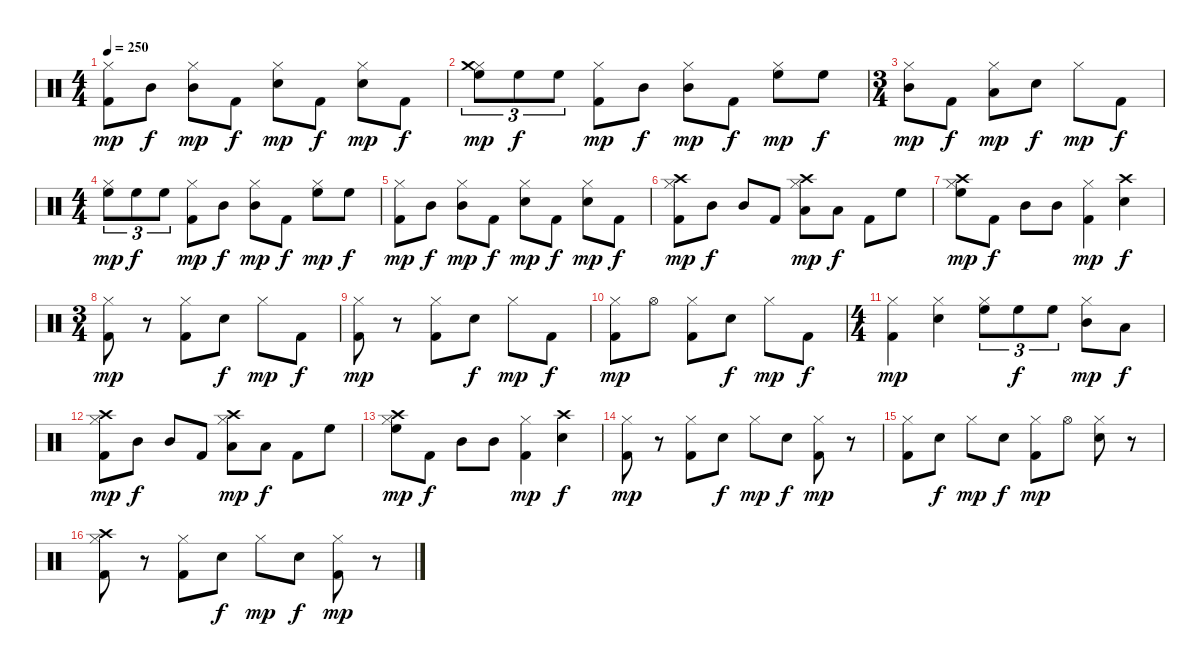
\track "" {instrument percussion}
\staff {score}
\articulation defaults
\ts (4 4)
\tempo 250
\clef neutral
\ks c
("Hi-Hat (closed)" "Kick (hit) 2").8{dy mp balance 8} "Mid Tom (hit)".8{dy f} ("Hi-Hat (closed)" "Mid Tom (hit)").8{dy mp} "Kick (hit) 2".8{dy f} ("Hi-Hat (closed)" "Electric Snare (hit)").8{dy mp} "Kick (hit) 2".8{dy f} ("Hi-Hat (closed)" "Electric Snare (hit)").8{dy mp} "Kick (hit) 2".8{dy f} |
("Hi-Hat (closed)" "High Floor Tom (hit)" "Crash medium (hit)").8{tu (3 2) dy mp balance 14} "High Floor Tom (hit)".8{tu (3 2) dy f} "High Floor Tom (hit)".8{tu (3 2)} ("Hi-Hat (closed)" "Kick (hit) 2").8{dy mp balance 8} "Mid Tom (hit)".8{dy f} ("Hi-Hat (closed)" "Mid Tom (hit)").8{dy mp} "Kick (hit) 2".8{dy f} ("Hi-Hat (closed)" "High Floor Tom (hit)").8{dy mp balance 14} "High Floor Tom (hit)".8{dy f} |
\ts (3 4)
("Hi-Hat (closed)" "Mid Tom (hit)").8{dy mp balance 8} "Kick (hit) 2".8{dy f} ("Hi-Hat (closed)" "Low Tom (hit)").8{dy mp balance 2} "Electric Snare (hit)".8{dy f balance 8} "Hi-Hat (closed)".8{dy mp} "Kick (hit) 2".8{dy f} |
\ts (4 4)
("Hi-Hat (closed)" "High Floor Tom (hit)").8{tu (3 2) dy mp balance 14} "High Floor Tom (hit)".8{tu (3 2) dy f} "High Floor Tom (hit)".8{tu (3 2)} ("Hi-Hat (closed)" "Kick (hit) 2").8{dy mp balance 8} "Mid Tom (hit)".8{dy f} ("Hi-Hat (closed)" "Mid Tom (hit)").8{dy mp} "Kick (hit) 2".8{dy f} ("Hi-Hat (closed)" "High Floor Tom (hit)").8{dy mp balance 14} "High Floor Tom (hit)".8{dy f} |
("Hi-Hat (closed)" "Kick (hit) 2").8{dy mp balance 8} "Mid Tom (hit)".8{dy f} ("Hi-Hat (closed)" "Mid Tom (hit)").8{dy mp} "Kick (hit) 2".8{dy f} ("Hi-Hat (closed)" "Electric Snare (hit)").8{dy mp} "Kick (hit) 2".8{dy f} ("Hi-Hat (closed)" "Electric Snare (hit)").8{dy mp} "Kick (hit) 2".8{dy f} |
("Hi-Hat (closed)" "Kick (hit) 2" "Crash high (hit)").8{dy mp} "Mid Tom (hit)".8{dy f} "Mid Tom (hit)".8 "Kick (hit) 2".8 ("Hi-Hat (closed)" "Low Tom (hit)" "Crash high (hit)").8{dy mp balance 2} "Low Tom (hit)".8{dy f} "Kick (hit) 2".8{balance 8} "High Floor Tom (hit)".8{balance 14} |
("Hi-Hat (closed)" "High Floor Tom (hit)" "Crash high (hit)").8{dy mp} "Kick (hit) 2".8{dy f balance 8} "Mid Tom (hit)".8 "Mid Tom (hit)".8 ("Hi-Hat (closed)" "Kick (hit) 2").4{dy mp} ("Electric Snare (hit)" "Crash high (hit)").4{dy f} |
\ts (3 4)
("Hi-Hat (closed)" "Kick (hit) 2").8{dy mp} r.8 ("Hi-Hat (closed)" "Kick (hit) 2").8 "Electric Snare (hit)".8{dy f} "Hi-Hat (closed)".8{dy mp} "Kick (hit) 2".8{dy f} |
("Hi-Hat (closed)" "Kick (hit) 2").8{dy mp} r.8 ("Hi-Hat (closed)" "Kick (hit) 2").8 "Electric Snare (hit)".8{dy f} "Hi-Hat (closed)".8{dy mp} "Kick (hit) 2".8{dy f} |
("Hi-Hat (closed)" "Kick (hit) 2").8{dy mp} "Hi-Hat (open)".8 ("Hi-Hat (closed)" "Kick (hit) 2").8 "Electric Snare (hit)".8{dy f} "Hi-Hat (closed)".8{dy mp} "Kick (hit) 2".8{dy f} |
\ts (4 4)
("Hi-Hat (closed)" "Kick (hit) 2").4{dy mp} ("Hi-Hat (closed)" "Electric Snare (hit)").4 ("Hi-Hat (closed)" "High Floor Tom (hit)").8{tu (3 2) balance 16} "High Floor Tom (hit)".8{tu (3 2) dy f} "High Floor Tom (hit)".8{tu (3 2)} ("Hi-Hat (closed)" "Mid Tom (hit)").8{dy mp balance 8} "Low Tom (hit)".8{dy f balance 0} |
("Hi-Hat (closed)" "Kick (hit) 2" "Crash high (hit)").8{dy mp} "Mid Tom (hit)".8{dy f} "Mid Tom (hit)".8 "Kick (hit) 2".8 ("Hi-Hat (closed)" "Low Tom (hit)" "Crash high (hit)").8{dy mp balance 2} "Low Tom (hit)".8{dy f} "Kick (hit) 2".8{balance 8} "High Floor Tom (hit)".8{balance 14} |
("Hi-Hat (closed)" "High Floor Tom (hit)" "Crash high (hit)").8{dy mp} "Kick (hit) 2".8{dy f balance 8} "Mid Tom (hit)".8 "Mid Tom (hit)".8 ("Hi-Hat (closed)" "Kick (hit) 2").4{dy mp} ("Electric Snare (hit)" "Crash high (hit)").4{dy f} |
("Kick (hit) 2" "Hi-Hat (closed)").8{dy mp} r.8 ("Kick (hit) 2" "Hi-Hat (closed)").8 "Electric Snare (hit)".8{dy f} "Hi-Hat (closed)".8{dy mp} "Electric Snare (hit)".8{dy f} ("Kick (hit) 2" "Hi-Hat (closed)").8{dy mp} r.8 |
("Kick (hit) 2" "Hi-Hat (closed)").8 "Electric Snare (hit)".8{dy f} "Hi-Hat (closed)".8{dy mp} "Electric Snare (hit)".8{dy f} ("Kick (hit) 2" "Hi-Hat (closed)").8{dy mp} "Hi-Hat (open)".8 ("Electric Snare (hit)" "Hi-Hat (closed)").8 r.8 |
("Kick (hit) 2" "Hi-Hat (closed)" "Crash high (hit)").8 r.8 ("Kick (hit) 2" "Hi-Hat (closed)").8 "Electric Snare (hit)".8{dy f} "Hi-Hat (closed)".8{dy mp} "Electric Snare (hit)".8{dy f} ("Kick (hit) 2" "Hi-Hat (closed)").8{dy mp} r.8
